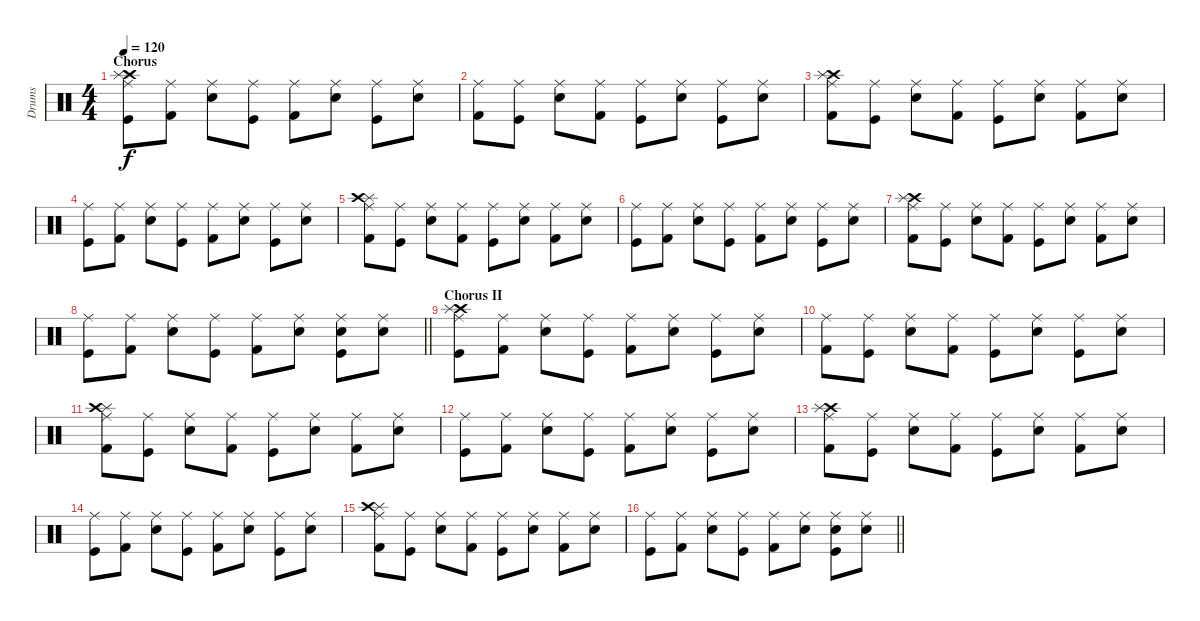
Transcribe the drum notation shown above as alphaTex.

\track ("Drums" "Drums") {instrument percussion}
\staff {score}
\articulation defaults
\ts (4 4)
\section ("" "Chorus")
\tempo 120
\clef neutral
\ks c
("Kick (hit)" "Crash high (hit)" "Splash (hit)" "Ride (middle)").8{dy f} ("Kick (hit) 2" "Ride (middle)").8 ("Snare (hit) 2" "Ride (middle)").8 ("Kick (hit)" "Ride (middle)").8 ("Kick (hit) 2" "Ride (middle)").8 ("Snare (hit) 2" "Ride (middle)").8 ("Kick (hit)" "Ride (middle)").8 ("Snare (hit) 2" "Ride (middle)").8 |
("Kick (hit) 2" "Ride (middle)").8 ("Kick (hit)" "Ride (middle)").8 ("Snare (hit) 2" "Ride (middle)").8 ("Kick (hit) 2" "Ride (middle)").8 ("Kick (hit)" "Ride (middle)").8 ("Snare (hit) 2" "Ride (middle)").8 ("Kick (hit)" "Ride (middle)").8 ("Snare (hit) 2" "Ride (middle)").8 |
("Kick (hit) 2" "Crash high (hit)" "Splash (hit)" "Ride (middle)").8 ("Kick (hit)" "Ride (middle)").8 ("Snare (hit) 2" "Ride (middle)").8 ("Kick (hit) 2" "Ride (middle)").8 ("Kick (hit)" "Ride (middle)").8 ("Snare (hit) 2" "Ride (middle)").8 ("Kick (hit) 2" "Ride (middle)").8 ("Snare (hit) 2" "Ride (middle)").8 |
("Kick (hit)" "Ride (middle)").8 ("Kick (hit) 2" "Ride (middle)").8 ("Snare (hit) 2" "Ride (middle)").8 ("Kick (hit)" "Ride (middle)").8 ("Kick (hit) 2" "Ride (middle)").8 ("Snare (hit) 2" "Ride (middle)").8 ("Kick (hit)" "Ride (middle)").8 ("Snare (hit) 2" "Ride (middle)").8 |
("Kick (hit) 2" "Splash (hit)" "Crash high (hit)" "Ride (middle)").8 ("Kick (hit)" "Ride (middle)").8 ("Snare (hit) 2" "Ride (middle)").8 ("Kick (hit) 2" "Ride (middle)").8 ("Kick (hit)" "Ride (middle)").8 ("Snare (hit) 2" "Ride (middle)").8 ("Kick (hit) 2" "Ride (middle)").8 ("Snare (hit) 2" "Ride (middle)").8 |
("Kick (hit)" "Ride (middle)").8 ("Kick (hit) 2" "Ride (middle)").8 ("Snare (hit) 2" "Ride (middle)").8 ("Kick (hit)" "Ride (middle)").8 ("Kick (hit) 2" "Ride (middle)").8 ("Snare (hit) 2" "Ride (middle)").8 ("Kick (hit)" "Ride (middle)").8 ("Snare (hit) 2" "Ride (middle)").8 |
("Kick (hit) 2" "Crash high (hit)" "Splash (hit)" "Ride (middle)").8 ("Kick (hit)" "Ride (middle)").8 ("Snare (hit) 2" "Ride (middle)").8 ("Kick (hit) 2" "Ride (middle)").8 ("Kick (hit)" "Ride (middle)").8 ("Snare (hit) 2" "Ride (middle)").8 ("Kick (hit) 2" "Ride (middle)").8 ("Snare (hit) 2" "Ride (middle)").8 |
\barLineRight lightlight
("Kick (hit)" "Ride (middle)").8 ("Kick (hit) 2" "Ride (middle)").8 ("Snare (hit) 2" "Ride (middle)").8 ("Kick (hit)" "Ride (middle)").8 ("Kick (hit) 2" "Ride (middle)").8 ("Snare (hit) 2" "Ride (middle)").8 ("Kick (hit)" "Snare (hit) 2" "Ride (middle)").8 ("Snare (hit) 2" "Ride (middle)").8 |
\section ("" "Chorus II")
("Kick (hit)" "Crash high (hit)" "Splash (hit)" "Ride (middle)").8 ("Kick (hit) 2" "Ride (middle)").8 ("Snare (hit) 2" "Ride (middle)").8 ("Kick (hit)" "Ride (middle)").8 ("Kick (hit) 2" "Ride (middle)").8 ("Snare (hit) 2" "Ride (middle)").8 ("Kick (hit)" "Ride (middle)").8 ("Snare (hit) 2" "Ride (middle)").8 |
("Kick (hit) 2" "Ride (middle)").8 ("Kick (hit)" "Ride (middle)").8 ("Snare (hit) 2" "Ride (middle)").8 ("Kick (hit) 2" "Ride (middle)").8 ("Kick (hit)" "Ride (middle)").8 ("Snare (hit) 2" "Ride (middle)").8 ("Kick (hit)" "Ride (middle)").8 ("Snare (hit) 2" "Ride (middle)").8 |
("Kick (hit) 2" "Splash (hit)" "Crash high (hit)" "Ride (middle)").8 ("Kick (hit)" "Ride (middle)").8 ("Snare (hit) 2" "Ride (middle)").8 ("Kick (hit) 2" "Ride (middle)").8 ("Kick (hit)" "Ride (middle)").8 ("Snare (hit) 2" "Ride (middle)").8 ("Kick (hit) 2" "Ride (middle)").8 ("Snare (hit) 2" "Ride (middle)").8 |
("Kick (hit)" "Ride (middle)").8 ("Kick (hit) 2" "Ride (middle)").8 ("Snare (hit) 2" "Ride (middle)").8 ("Kick (hit)" "Ride (middle)").8 ("Kick (hit) 2" "Ride (middle)").8 ("Snare (hit) 2" "Ride (middle)").8 ("Kick (hit)" "Ride (middle)").8 ("Snare (hit) 2" "Ride (middle)").8 |
("Kick (hit) 2" "Crash high (hit)" "Splash (hit)" "Ride (middle)").8 ("Kick (hit)" "Ride (middle)").8 ("Snare (hit) 2" "Ride (middle)").8 ("Kick (hit) 2" "Ride (middle)").8 ("Kick (hit)" "Ride (middle)").8 ("Snare (hit) 2" "Ride (middle)").8 ("Kick (hit) 2" "Ride (middle)").8 ("Snare (hit) 2" "Ride (middle)").8 |
("Kick (hit)" "Ride (middle)").8 ("Kick (hit) 2" "Ride (middle)").8 ("Snare (hit) 2" "Ride (middle)").8 ("Kick (hit)" "Ride (middle)").8 ("Kick (hit) 2" "Ride (middle)").8 ("Snare (hit) 2" "Ride (middle)").8 ("Kick (hit)" "Ride (middle)").8 ("Snare (hit) 2" "Ride (middle)").8 |
("Kick (hit) 2" "Splash (hit)" "Crash high (hit)" "Ride (middle)").8 ("Kick (hit)" "Ride (middle)").8 ("Snare (hit) 2" "Ride (middle)").8 ("Kick (hit) 2" "Ride (middle)").8 ("Kick (hit)" "Ride (middle)").8 ("Snare (hit) 2" "Ride (middle)").8 ("Kick (hit) 2" "Ride (middle)").8 ("Snare (hit) 2" "Ride (middle)").8 |
\barLineRight lightlight
("Kick (hit)" "Ride (middle)").8 ("Kick (hit) 2" "Ride (middle)").8 ("Snare (hit) 2" "Ride (middle)").8 ("Kick (hit)" "Ride (middle)").8 ("Kick (hit) 2" "Ride (middle)").8 ("Snare (hit) 2" "Ride (middle)").8 ("Kick (hit)" "Snare (hit) 2" "Ride (middle)").8 ("Snare (hit) 2" "Ride (middle)").8
